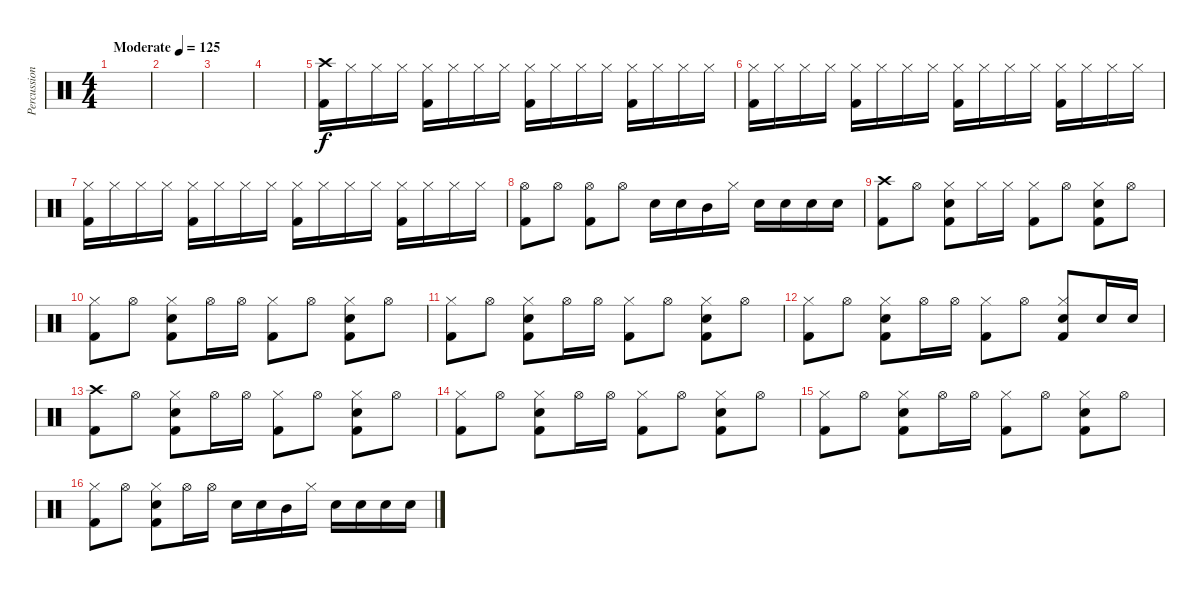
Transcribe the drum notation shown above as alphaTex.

\track ("Percussion" "Percussion") {instrument percussion}
\staff {score}
\articulation defaults
\ts (4 4)
\tempo (125 "Moderate")
\clef neutral
\ks c
|
|
|
|
("Crash high (hit)" "Kick (hit) 2").16 "Hi-Hat (closed)".16 "Hi-Hat (closed)".16 "Hi-Hat (closed)".16 ("Hi-Hat (closed)" "Kick (hit) 2").16 "Hi-Hat (closed)".16 "Hi-Hat (closed)".16 "Hi-Hat (closed)".16 ("Hi-Hat (closed)" "Kick (hit) 2").16 "Hi-Hat (closed)".16 "Hi-Hat (closed)".16 "Hi-Hat (closed)".16 ("Hi-Hat (closed)" "Kick (hit) 2").16 "Hi-Hat (closed)".16{txt ""} "Hi-Hat (closed)".16 "Hi-Hat (closed)".16 |
("Hi-Hat (closed)" "Kick (hit) 2").16 "Hi-Hat (closed)".16 "Hi-Hat (closed)".16 "Hi-Hat (closed)".16 ("Hi-Hat (closed)" "Kick (hit) 2").16 "Hi-Hat (closed)".16 "Hi-Hat (closed)".16 "Hi-Hat (closed)".16 ("Hi-Hat (closed)" "Kick (hit) 2").16 "Hi-Hat (closed)".16 "Hi-Hat (closed)".16 "Hi-Hat (closed)".16 ("Hi-Hat (closed)" "Kick (hit) 2").16 "Hi-Hat (closed)".16 "Hi-Hat (closed)".16 "Hi-Hat (closed)".16 |
("Hi-Hat (closed)" "Kick (hit) 2").16 "Hi-Hat (closed)".16 "Hi-Hat (closed)".16 "Hi-Hat (closed)".16 ("Hi-Hat (closed)" "Kick (hit) 2").16 "Hi-Hat (closed)".16 "Hi-Hat (closed)".16 "Hi-Hat (closed)".16 ("Hi-Hat (closed)" "Kick (hit) 2").16 "Hi-Hat (closed)".16 "Hi-Hat (closed)".16 "Hi-Hat (closed)".16 ("Hi-Hat (closed)" "Kick (hit) 2").16 "Hi-Hat (closed)".16 "Hi-Hat (closed)".16 "Hi-Hat (closed)".16 |
("Hi-Hat (open)" "Kick (hit) 2").8 "Hi-Hat (open)".8 ("Hi-Hat (open)" "Kick (hit) 2").8 "Hi-Hat (open)".8 "Electric Snare (hit)".16 "Electric Snare (hit)".16 "Mid Tom (hit)".16 "Hi-Hat (closed)".16 "Electric Snare (hit)".16 "Electric Snare (hit)".16 "Electric Snare (hit)".16 "Electric Snare (hit)".16 |
("Crash high (hit)" "Kick (hit) 2").8 "Hi-Hat (open)".8 ("Hi-Hat (closed)" "Electric Snare (hit)" "Kick (hit) 2").8 "Hi-Hat (closed)".16 "Hi-Hat (closed)".16 ("Hi-Hat (closed)" "Kick (hit) 2").8 "Hi-Hat (open)".8 ("Hi-Hat (closed)" "Electric Snare (hit)" "Kick (hit) 2").8 "Hi-Hat (open)".8 |
("Hi-Hat (closed)" "Kick (hit) 2").8 "Hi-Hat (open)".8 ("Hi-Hat (closed)" "Electric Snare (hit)" "Kick (hit) 2").8 "Hi-Hat (open)".16 "Hi-Hat (open)".16 ("Hi-Hat (closed)" "Kick (hit) 2").8 "Hi-Hat (open)".8 ("Hi-Hat (closed)" "Electric Snare (hit)" "Kick (hit) 2").8 "Hi-Hat (open)".8 |
("Hi-Hat (closed)" "Kick (hit) 2").8 "Hi-Hat (open)".8 ("Hi-Hat (closed)" "Electric Snare (hit)" "Kick (hit) 2").8 "Hi-Hat (open)".16 "Hi-Hat (open)".16 ("Hi-Hat (closed)" "Kick (hit) 2").8 "Hi-Hat (open)".8 ("Hi-Hat (closed)" "Electric Snare (hit)" "Kick (hit) 2").8 "Hi-Hat (open)".8 |
("Hi-Hat (closed)" "Kick (hit) 2").8 "Hi-Hat (open)".8 ("Hi-Hat (closed)" "Electric Snare (hit)" "Kick (hit) 2").8 "Hi-Hat (open)".16 "Hi-Hat (open)".16 ("Hi-Hat (closed)" "Kick (hit) 2").8 "Hi-Hat (open)".8 ("Hi-Hat (closed)" "Electric Snare (hit)" "Kick (hit) 2").8 "Electric Snare (hit)".16 "Electric Snare (hit)".16 |
("Crash high (hit)" "Kick (hit) 2").8 "Hi-Hat (open)".8 ("Hi-Hat (closed)" "Electric Snare (hit)" "Kick (hit) 2").8 "Hi-Hat (open)".16 "Hi-Hat (open)".16 ("Hi-Hat (closed)" "Kick (hit) 2").8 "Hi-Hat (open)".8 ("Hi-Hat (closed)" "Electric Snare (hit)" "Kick (hit) 2").8 "Hi-Hat (open)".8 |
("Hi-Hat (closed)" "Kick (hit) 2").8 "Hi-Hat (open)".8 ("Hi-Hat (closed)" "Electric Snare (hit)" "Kick (hit) 2").8 "Hi-Hat (open)".16 "Hi-Hat (open)".16 ("Hi-Hat (closed)" "Kick (hit) 2").8 "Hi-Hat (open)".8 ("Hi-Hat (closed)" "Electric Snare (hit)" "Kick (hit) 2").8 "Hi-Hat (open)".8 |
("Hi-Hat (closed)" "Kick (hit) 2").8 "Hi-Hat (open)".8 ("Hi-Hat (closed)" "Electric Snare (hit)" "Kick (hit) 2").8 "Hi-Hat (open)".16 "Hi-Hat (open)".16 ("Hi-Hat (closed)" "Kick (hit) 2").8 "Hi-Hat (open)".8 ("Hi-Hat (closed)" "Electric Snare (hit)" "Kick (hit) 2").8 "Hi-Hat (open)".8 |
("Hi-Hat (closed)" "Kick (hit) 2").8 "Hi-Hat (open)".8 ("Hi-Hat (closed)" "Electric Snare (hit)" "Kick (hit) 2").8 "Hi-Hat (open)".16 "Hi-Hat (open)".16 "Electric Snare (hit)".16 "Electric Snare (hit)".16 "Mid Tom (hit)".16 "Hi-Hat (closed)".16 "Electric Snare (hit)".16 "Electric Snare (hit)".16 "Electric Snare (hit)".16 "Electric Snare (hit)".16
